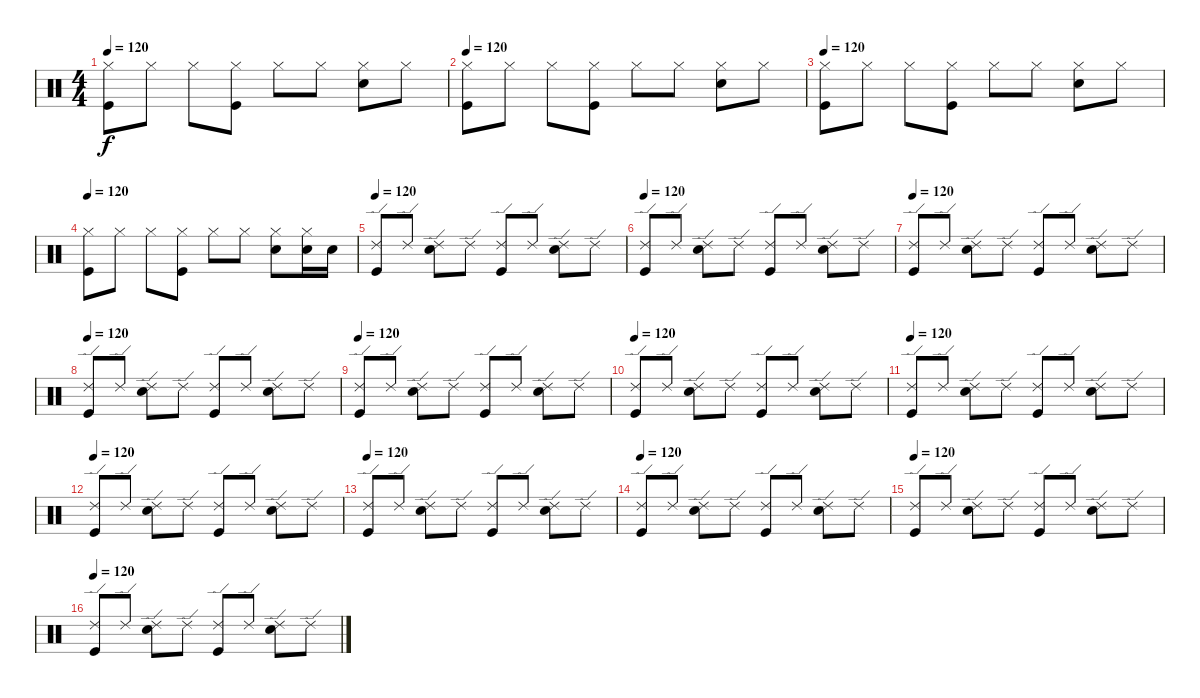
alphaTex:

\track "" {instrument percussion}
\staff {score}
\articulation defaults
\ts (4 4)
\tempo 120
\clef neutral
\ks c
("Hi-Hat (closed)" "Kick (hit)").8{dy f} "Hi-Hat (closed)".8 "Hi-Hat (closed)".8 ("Kick (hit)" "Hi-Hat (closed)").8 "Hi-Hat (closed)".8 "Hi-Hat (closed)".8 ("Electric Snare (hit)" "Hi-Hat (closed)").8 "Hi-Hat (closed)".8 |
\tempo 120
("Hi-Hat (closed)" "Kick (hit)").8 "Hi-Hat (closed)".8 "Hi-Hat (closed)".8 ("Kick (hit)" "Hi-Hat (closed)").8 "Hi-Hat (closed)".8 "Hi-Hat (closed)".8 ("Electric Snare (hit)" "Hi-Hat (closed)").8 "Hi-Hat (closed)".8 |
\tempo 120
("Hi-Hat (closed)" "Kick (hit)").8 "Hi-Hat (closed)".8 "Hi-Hat (closed)".8 ("Kick (hit)" "Hi-Hat (closed)").8 "Hi-Hat (closed)".8 "Hi-Hat (closed)".8 ("Electric Snare (hit)" "Hi-Hat (closed)").8 "Hi-Hat (closed)".8 |
\tempo 120
("Hi-Hat (closed)" "Kick (hit)").8 "Hi-Hat (closed)".8 "Hi-Hat (closed)".8 ("Kick (hit)" "Hi-Hat (closed)").8 "Hi-Hat (closed)".8 "Hi-Hat (closed)".8 ("Electric Snare (hit)" "Hi-Hat (closed)").8 ("Electric Snare (hit)" "Hi-Hat (closed)").16 "Electric Snare (hit)".16 |
\tempo 120
("Kick (hit)" "Ride (edge) 2").8 "Ride (edge) 2".8 ("Ride (edge) 2" "Electric Snare (hit)").8 "Ride (edge) 2".8 ("Kick (hit)" "Ride (edge) 2").8 "Ride (edge) 2".8 ("Electric Snare (hit)" "Ride (edge) 2").8 "Ride (edge) 2".8 |
\tempo 120
("Kick (hit)" "Ride (edge) 2").8 "Ride (edge) 2".8 ("Ride (edge) 2" "Electric Snare (hit)").8 "Ride (edge) 2".8 ("Kick (hit)" "Ride (edge) 2").8 "Ride (edge) 2".8 ("Electric Snare (hit)" "Ride (edge) 2").8 "Ride (edge) 2".8 |
\tempo 120
("Kick (hit)" "Ride (edge) 2").8 "Ride (edge) 2".8 ("Ride (edge) 2" "Electric Snare (hit)").8 "Ride (edge) 2".8 ("Kick (hit)" "Ride (edge) 2").8 "Ride (edge) 2".8 ("Electric Snare (hit)" "Ride (edge) 2").8 "Ride (edge) 2".8 |
\tempo 120
("Kick (hit)" "Ride (edge) 2").8 "Ride (edge) 2".8 ("Ride (edge) 2" "Electric Snare (hit)").8 "Ride (edge) 2".8 ("Kick (hit)" "Ride (edge) 2").8 "Ride (edge) 2".8 ("Electric Snare (hit)" "Ride (edge) 2").8 "Ride (edge) 2".8 |
\tempo 120
("Kick (hit)" "Ride (edge) 2").8 "Ride (edge) 2".8 ("Ride (edge) 2" "Electric Snare (hit)").8 "Ride (edge) 2".8 ("Kick (hit)" "Ride (edge) 2").8 "Ride (edge) 2".8 ("Electric Snare (hit)" "Ride (edge) 2").8 "Ride (edge) 2".8 |
\tempo 120
("Kick (hit)" "Ride (edge) 2").8 "Ride (edge) 2".8 ("Ride (edge) 2" "Electric Snare (hit)").8 "Ride (edge) 2".8 ("Kick (hit)" "Ride (edge) 2").8 "Ride (edge) 2".8 ("Electric Snare (hit)" "Ride (edge) 2").8 "Ride (edge) 2".8 |
\tempo 120
("Kick (hit)" "Ride (edge) 2").8 "Ride (edge) 2".8 ("Ride (edge) 2" "Electric Snare (hit)").8 "Ride (edge) 2".8 ("Kick (hit)" "Ride (edge) 2").8 "Ride (edge) 2".8 ("Electric Snare (hit)" "Ride (edge) 2").8 "Ride (edge) 2".8 |
\tempo 120
("Kick (hit)" "Ride (edge) 2").8 "Ride (edge) 2".8 ("Ride (edge) 2" "Electric Snare (hit)").8 "Ride (edge) 2".8 ("Kick (hit)" "Ride (edge) 2").8 "Ride (edge) 2".8 ("Electric Snare (hit)" "Ride (edge) 2").8 "Ride (edge) 2".8 |
\tempo 120
("Kick (hit)" "Ride (edge) 2").8 "Ride (edge) 2".8 ("Ride (edge) 2" "Electric Snare (hit)").8 "Ride (edge) 2".8 ("Kick (hit)" "Ride (edge) 2").8 "Ride (edge) 2".8 ("Electric Snare (hit)" "Ride (edge) 2").8 "Ride (edge) 2".8 |
\tempo 120
("Kick (hit)" "Ride (edge) 2").8 "Ride (edge) 2".8 ("Ride (edge) 2" "Electric Snare (hit)").8 "Ride (edge) 2".8 ("Kick (hit)" "Ride (edge) 2").8 "Ride (edge) 2".8 ("Electric Snare (hit)" "Ride (edge) 2").8 "Ride (edge) 2".8 |
\tempo 120
("Kick (hit)" "Ride (edge) 2").8 "Ride (edge) 2".8 ("Ride (edge) 2" "Electric Snare (hit)").8 "Ride (edge) 2".8 ("Kick (hit)" "Ride (edge) 2").8 "Ride (edge) 2".8 ("Electric Snare (hit)" "Ride (edge) 2").8 "Ride (edge) 2".8 |
\tempo 120
("Kick (hit)" "Ride (edge) 2").8 "Ride (edge) 2".8 ("Ride (edge) 2" "Electric Snare (hit)").8 "Ride (edge) 2".8 ("Kick (hit)" "Ride (edge) 2").8 "Ride (edge) 2".8 ("Electric Snare (hit)" "Ride (edge) 2").8 "Ride (edge) 2".8
